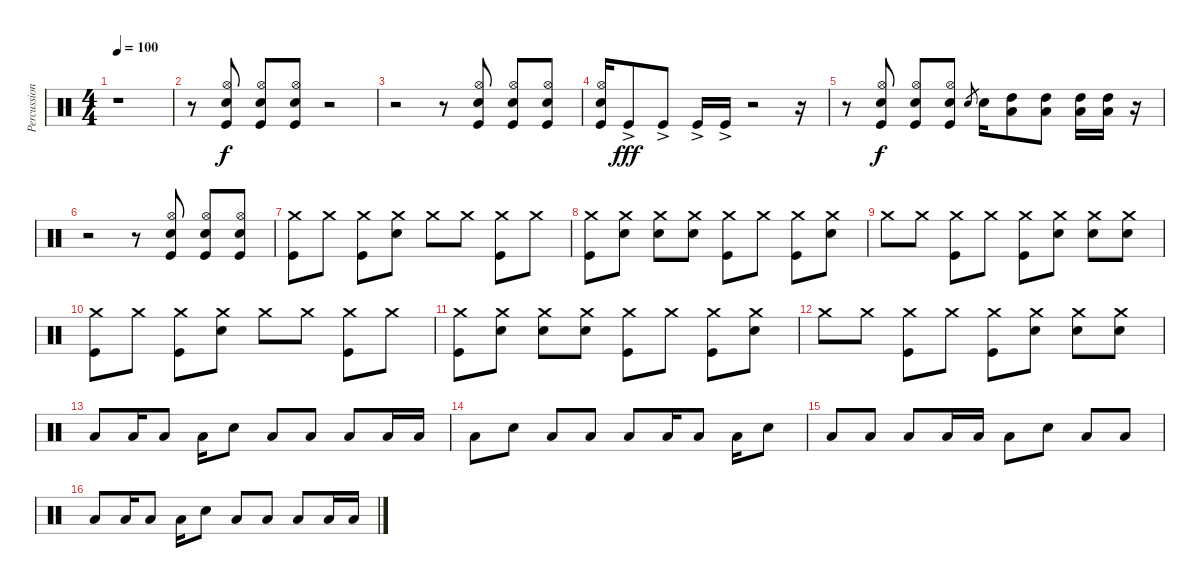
\track ("Percussion" "Percussion") {instrument percussion}
\staff {score}
\articulation defaults
\ts (4 4)
\tempo 100
\clef neutral
\ks c
r.1{dy f} |
r.8 ("Kick (hit)" "Hi-Hat (open)" "Electric Snare (hit)").8 ("Kick (hit)" "Hi-Hat (open)" "Electric Snare (hit)").8 ("Kick (hit)" "Hi-Hat (open)" "Electric Snare (hit)").8 r.2 |
r.2 r.8 ("Kick (hit)" "Hi-Hat (open)" "Electric Snare (hit)").8 ("Kick (hit)" "Hi-Hat (open)" "Electric Snare (hit)").8 ("Kick (hit)" "Hi-Hat (open)" "Electric Snare (hit)").8 |
("Hi-Hat (open)" "Electric Snare (hit)" "Kick (hit)").16 "Kick (hit)"{ac}.8{dy fff} "Kick (hit)"{ac}.8 "Kick (hit)"{ac}.16 "Kick (hit)"{ac}.16 r.2 r.16 |
r.8 ("Kick (hit)" "Hi-Hat (open)" "Electric Snare (hit)").8{dy f} ("Kick (hit)" "Hi-Hat (open)" "Electric Snare (hit)").8 ("Kick (hit)" "Hi-Hat (open)" "Electric Snare (hit)").8 "Electric Snare (hit)".8{gr} "Electric Snare (hit)".16 ("Low Floor Tom (hit)" "High Tom (hit)").8 ("Low Floor Tom (hit)" "High Tom (hit)").8 ("Low Floor Tom (hit)" "High Tom (hit)").16 ("Low Floor Tom (hit)" "High Tom (hit)").16 r.16 |
r.2 r.8 ("Kick (hit)" "Hi-Hat (open)" "Electric Snare (hit)").8 ("Kick (hit)" "Hi-Hat (open)" "Electric Snare (hit)").8 ("Kick (hit)" "Hi-Hat (open)" "Electric Snare (hit)").8 |
("Crash medium (hit)" "Kick (hit)").8 "Crash medium (hit)".8 ("Crash medium (hit)" "Kick (hit)").8 ("Crash medium (hit)" "Electric Snare (hit)").8 "Crash medium (hit)".8 "Crash medium (hit)".8 ("Crash medium (hit)" "Kick (hit)").8 "Crash medium (hit)".8 |
("Crash medium (hit)" "Kick (hit)").8 ("Crash medium (hit)" "Electric Snare (hit)").8 ("Crash medium (hit)" "Electric Snare (hit)").8 ("Crash medium (hit)" "Electric Snare (hit)").8 ("Crash medium (hit)" "Kick (hit)").8 "Crash medium (hit)".8 ("Crash medium (hit)" "Kick (hit)").8 ("Crash medium (hit)" "Electric Snare (hit)").8 |
"Crash medium (hit)".8 "Crash medium (hit)".8 ("Crash medium (hit)" "Kick (hit)").8 "Crash medium (hit)".8 ("Crash medium (hit)" "Kick (hit)").8 ("Crash medium (hit)" "Electric Snare (hit)").8 ("Crash medium (hit)" "Electric Snare (hit)").8 ("Crash medium (hit)" "Electric Snare (hit)").8 |
("Crash medium (hit)" "Kick (hit)").8 "Crash medium (hit)".8 ("Crash medium (hit)" "Kick (hit)").8 ("Crash medium (hit)" "Electric Snare (hit)").8 "Crash medium (hit)".8 "Crash medium (hit)".8 ("Crash medium (hit)" "Kick (hit)").8 "Crash medium (hit)".8 |
("Crash medium (hit)" "Kick (hit)").8 ("Crash medium (hit)" "Electric Snare (hit)").8 ("Crash medium (hit)" "Electric Snare (hit)").8 ("Crash medium (hit)" "Electric Snare (hit)").8 ("Crash medium (hit)" "Kick (hit)").8 "Crash medium (hit)".8 ("Crash medium (hit)" "Kick (hit)").8 ("Crash medium (hit)" "Electric Snare (hit)").8 |
"Crash medium (hit)".8 "Crash medium (hit)".8 ("Crash medium (hit)" "Kick (hit)").8 "Crash medium (hit)".8 ("Crash medium (hit)" "Kick (hit)").8 ("Crash medium (hit)" "Electric Snare (hit)").8 ("Crash medium (hit)" "Electric Snare (hit)").8 ("Crash medium (hit)" "Electric Snare (hit)").8 |
"Low Floor Tom (hit)".8 "Low Floor Tom (hit)".16 "Low Floor Tom (hit)".8 "Low Floor Tom (hit)".16 "Electric Snare (hit)".8 "Low Floor Tom (hit)".8 "Low Floor Tom (hit)".8 "Low Floor Tom (hit)".8 "Low Floor Tom (hit)".16 "Low Floor Tom (hit)".16 |
"Low Floor Tom (hit)".8 "Electric Snare (hit)".8 "Low Floor Tom (hit)".8 "Low Floor Tom (hit)".8 "Low Floor Tom (hit)".8 "Low Floor Tom (hit)".16 "Low Floor Tom (hit)".8 "Low Floor Tom (hit)".16 "Electric Snare (hit)".8 |
"Low Floor Tom (hit)".8 "Low Floor Tom (hit)".8 "Low Floor Tom (hit)".8 "Low Floor Tom (hit)".16 "Low Floor Tom (hit)".16 "Low Floor Tom (hit)".8 "Electric Snare (hit)".8 "Low Floor Tom (hit)".8 "Low Floor Tom (hit)".8 |
"Low Floor Tom (hit)".8 "Low Floor Tom (hit)".16 "Low Floor Tom (hit)".8 "Low Floor Tom (hit)".16 "Electric Snare (hit)".8 "Low Floor Tom (hit)".8 "Low Floor Tom (hit)".8 "Low Floor Tom (hit)".8 "Low Floor Tom (hit)".16 "Low Floor Tom (hit)".16
